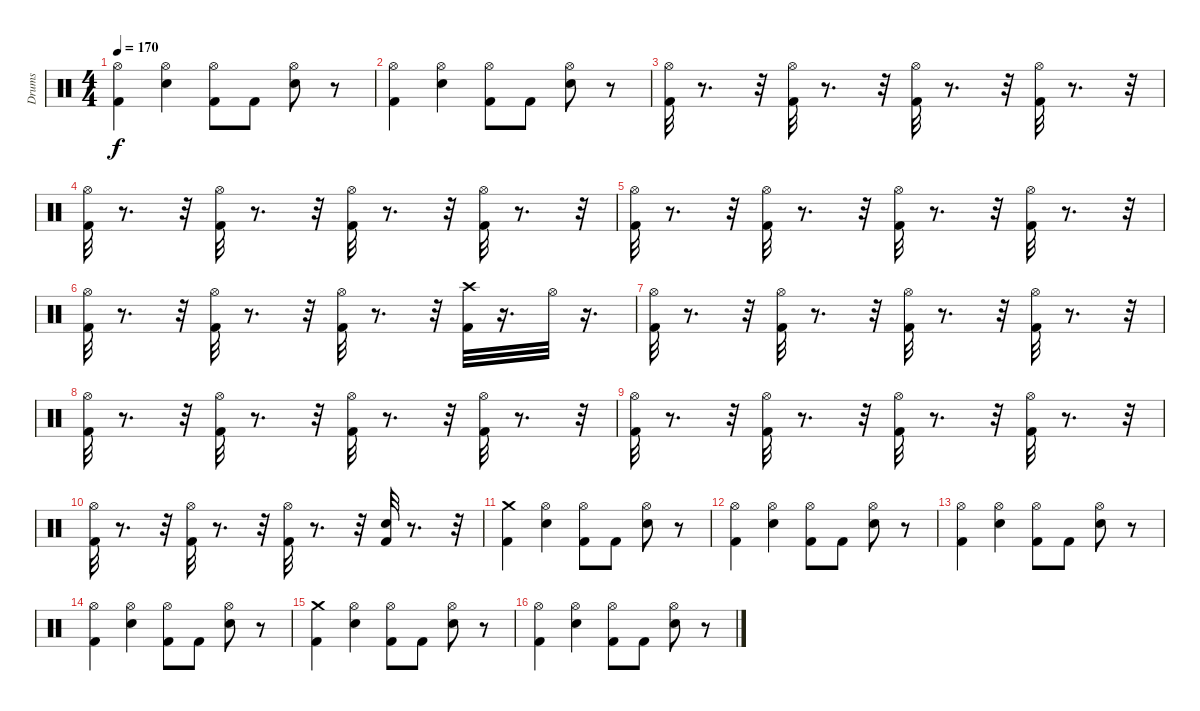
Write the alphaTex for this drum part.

\track ("Drums" "Drums") {instrument percussion}
\staff {score}
\articulation defaults
\ts (4 4)
\tempo 170
\clef neutral
\ks c
("Hi-Hat (open)" "Kick (hit) 2").4{dy f} ("Hi-Hat (open)" "Electric Snare (hit)").4 ("Hi-Hat (open)" "Kick (hit) 2").8 "Kick (hit) 2".8 ("Hi-Hat (open)" "Electric Snare (hit)").8 r.8 |
("Hi-Hat (open)" "Kick (hit) 2").4 ("Hi-Hat (open)" "Electric Snare (hit)").4 ("Hi-Hat (open)" "Kick (hit) 2").8 "Kick (hit) 2".8 ("Hi-Hat (open)" "Electric Snare (hit)").8 r.8 |
("Hi-Hat (open)" "Kick (hit) 2").32 r.8{d} r.32 ("Hi-Hat (open)" "Kick (hit) 2").32 r.8{d} r.32 ("Hi-Hat (open)" "Kick (hit) 2").32 r.8{d} r.32 ("Hi-Hat (open)" "Kick (hit) 2").32 r.8{d} r.32 |
("Hi-Hat (open)" "Kick (hit) 2").32 r.8{d} r.32 ("Hi-Hat (open)" "Kick (hit) 2").32 r.8{d} r.32 ("Hi-Hat (open)" "Kick (hit) 2").32 r.8{d} r.32 ("Hi-Hat (open)" "Kick (hit) 2").32 r.8{d} r.32 |
("Hi-Hat (open)" "Kick (hit) 2").32 r.8{d} r.32 ("Hi-Hat (open)" "Kick (hit) 2").32 r.8{d} r.32 ("Hi-Hat (open)" "Kick (hit) 2").32 r.8{d} r.32 ("Hi-Hat (open)" "Kick (hit) 2").32 r.8{d} r.32 |
("Hi-Hat (open)" "Kick (hit) 2").32 r.8{d} r.32 ("Hi-Hat (open)" "Kick (hit) 2").32 r.8{d} r.32 ("Hi-Hat (open)" "Kick (hit) 2").32 r.8{d} r.32 ("Crash high (hit)" "Kick (hit) 2").32 r.16{d} "Hi-Hat (open)".32 r.16{d} |
("Hi-Hat (open)" "Kick (hit) 2").32 r.8{d} r.32 ("Hi-Hat (open)" "Kick (hit) 2").32 r.8{d} r.32 ("Hi-Hat (open)" "Kick (hit) 2").32 r.8{d} r.32 ("Hi-Hat (open)" "Kick (hit) 2").32 r.8{d} r.32 |
("Hi-Hat (open)" "Kick (hit) 2").32 r.8{d} r.32 ("Hi-Hat (open)" "Kick (hit) 2").32 r.8{d} r.32 ("Hi-Hat (open)" "Kick (hit) 2").32 r.8{d} r.32 ("Hi-Hat (open)" "Kick (hit) 2").32 r.8{d} r.32 |
("Hi-Hat (open)" "Kick (hit) 2").32 r.8{d} r.32 ("Hi-Hat (open)" "Kick (hit) 2").32 r.8{d} r.32 ("Hi-Hat (open)" "Kick (hit) 2").32 r.8{d} r.32 ("Hi-Hat (open)" "Kick (hit) 2").32 r.8{d} r.32 |
("Hi-Hat (open)" "Kick (hit) 2").32 r.8{d} r.32 ("Hi-Hat (open)" "Kick (hit) 2").32 r.8{d} r.32 ("Hi-Hat (open)" "Kick (hit) 2").32 r.8{d} r.32 ("Electric Snare (hit)" "Kick (hit) 2").32 r.8{d} r.32 |
("Crash medium (hit)" "Kick (hit) 2").4 ("Hi-Hat (open)" "Electric Snare (hit)").4 ("Hi-Hat (open)" "Kick (hit) 2").8 "Kick (hit) 2".8 ("Hi-Hat (open)" "Electric Snare (hit)").8 r.8 |
("Hi-Hat (open)" "Kick (hit) 2").4 ("Hi-Hat (open)" "Electric Snare (hit)").4 ("Hi-Hat (open)" "Kick (hit) 2").8 "Kick (hit) 2".8 ("Hi-Hat (open)" "Electric Snare (hit)").8 r.8 |
("Hi-Hat (open)" "Kick (hit) 2").4 ("Hi-Hat (open)" "Electric Snare (hit)").4 ("Hi-Hat (open)" "Kick (hit) 2").8 "Kick (hit) 2".8 ("Hi-Hat (open)" "Electric Snare (hit)").8 r.8 |
("Hi-Hat (open)" "Kick (hit) 2").4 ("Hi-Hat (open)" "Electric Snare (hit)").4 ("Hi-Hat (open)" "Kick (hit) 2").8 "Kick (hit) 2".8 ("Hi-Hat (open)" "Electric Snare (hit)").8 r.8 |
("Crash medium (hit)" "Kick (hit) 2").4 ("Hi-Hat (open)" "Electric Snare (hit)").4 ("Hi-Hat (open)" "Kick (hit) 2").8 "Kick (hit) 2".8 ("Hi-Hat (open)" "Electric Snare (hit)").8 r.8 |
("Hi-Hat (open)" "Kick (hit) 2").4 ("Hi-Hat (open)" "Electric Snare (hit)").4 ("Hi-Hat (open)" "Kick (hit) 2").8 "Kick (hit) 2".8 ("Hi-Hat (open)" "Electric Snare (hit)").8 r.8
